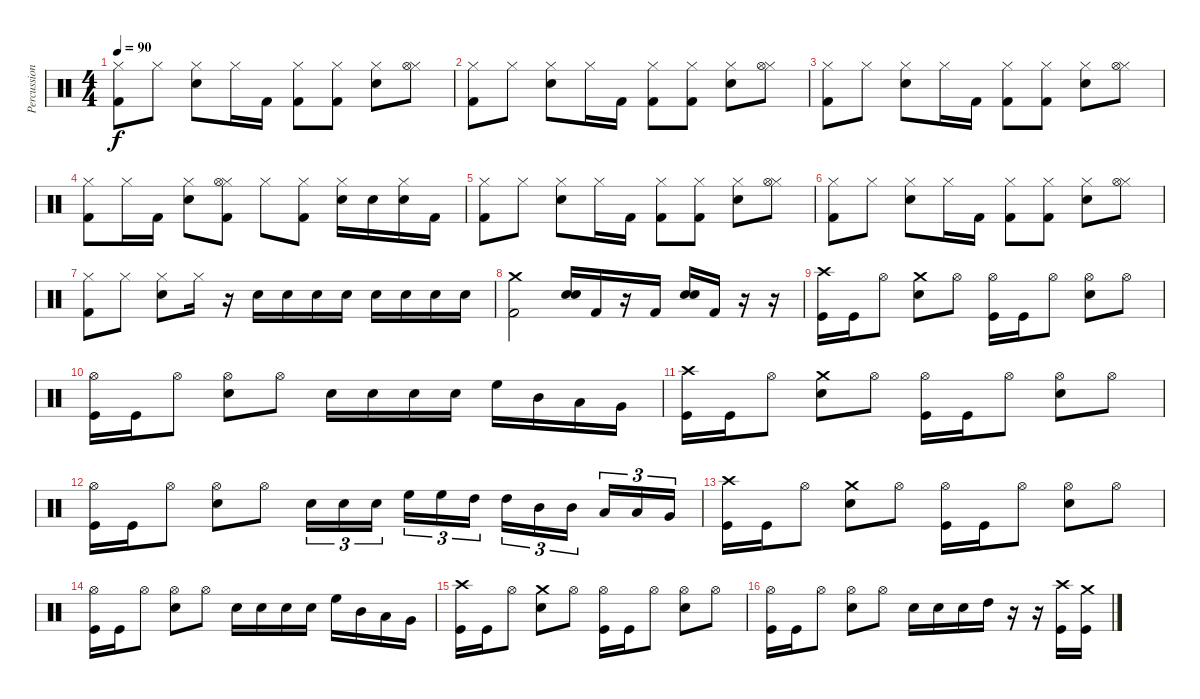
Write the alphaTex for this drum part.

\track ("Percussions" "Percussion") {instrument percussion}
\staff {score}
\articulation defaults
\ts (4 4)
\tempo 90
\clef neutral
\ks c
("Hi-Hat (closed)" "Kick (hit) 2").8{dy f} "Hi-Hat (closed)".8 ("Hi-Hat (closed)" "Electric Snare (hit)").8 "Hi-Hat (closed)".16 "Kick (hit) 2".16 ("Hi-Hat (closed)" "Kick (hit) 2").8 ("Hi-Hat (closed)" "Kick (hit) 2").8 ("Hi-Hat (closed)" "Electric Snare (hit)").8 ("Hi-Hat (closed)" "Hi-Hat (open)").8 |
("Hi-Hat (closed)" "Kick (hit) 2").8 "Hi-Hat (closed)".8 ("Hi-Hat (closed)" "Electric Snare (hit)").8 "Hi-Hat (closed)".16 "Kick (hit) 2".16 ("Hi-Hat (closed)" "Kick (hit) 2").8 ("Hi-Hat (closed)" "Kick (hit) 2").8 ("Hi-Hat (closed)" "Electric Snare (hit)").8 ("Hi-Hat (closed)" "Hi-Hat (open)").8 |
("Hi-Hat (closed)" "Kick (hit) 2").8 "Hi-Hat (closed)".8 ("Hi-Hat (closed)" "Electric Snare (hit)").8 "Hi-Hat (closed)".16 "Kick (hit) 2".16 ("Hi-Hat (closed)" "Kick (hit) 2").8 ("Hi-Hat (closed)" "Kick (hit) 2").8 ("Hi-Hat (closed)" "Electric Snare (hit)").8 ("Hi-Hat (closed)" "Hi-Hat (open)").8 |
("Hi-Hat (closed)" "Kick (hit) 2").8 "Hi-Hat (closed)".16 "Kick (hit) 2".16 ("Hi-Hat (closed)" "Electric Snare (hit)").8 ("Hi-Hat (closed)" "Hi-Hat (open)" "Kick (hit) 2").8 "Hi-Hat (closed)".8 ("Hi-Hat (closed)" "Kick (hit) 2").8 ("Hi-Hat (closed)" "Electric Snare (hit)").16 "Snare (hit)".16 ("Hi-Hat (closed)" "Snare (hit)").16 "Kick (hit) 2".16 |
("Hi-Hat (closed)" "Kick (hit) 2").8 "Hi-Hat (closed)".8 ("Hi-Hat (closed)" "Electric Snare (hit)").8 "Hi-Hat (closed)".16 "Kick (hit) 2".16 ("Hi-Hat (closed)" "Kick (hit) 2").8 ("Hi-Hat (closed)" "Kick (hit) 2").8 ("Hi-Hat (closed)" "Electric Snare (hit)").8 ("Hi-Hat (closed)" "Hi-Hat (open)").8 |
("Hi-Hat (closed)" "Kick (hit) 2").8 "Hi-Hat (closed)".8 ("Hi-Hat (closed)" "Electric Snare (hit)").8 "Hi-Hat (closed)".16 "Kick (hit) 2".16 ("Hi-Hat (closed)" "Kick (hit) 2").8 ("Hi-Hat (closed)" "Kick (hit) 2").8 ("Hi-Hat (closed)" "Electric Snare (hit)").8 ("Hi-Hat (closed)" "Hi-Hat (open)").8 |
("Hi-Hat (closed)" "Kick (hit) 2").8 "Hi-Hat (closed)".8 ("Hi-Hat (closed)" "Electric Snare (hit)").8 "Hi-Hat (closed)".16 r.16 "Electric Snare (hit)".16 "Electric Snare (hit)".16 "Electric Snare (hit)".16 "Electric Snare (hit)".16 "Electric Snare (hit)".16 "Electric Snare (hit)".16 "Electric Snare (hit)".16 "Electric Snare (hit)".16 |
("Crash medium (hit)" "Kick (hit) 2").2 ("Snare (hit) 2" "Electric Snare (hit)").16 "Kick (hit) 2".16 r.16 "Kick (hit) 2".16 ("Snare (hit) 2" "Electric Snare (hit)").16 "Kick (hit) 2".16 r.16 r.16 |
("Crash high (hit)" "Kick (hit)").16 "Kick (hit)".16 "Hi-Hat (open)".8 ("Crash medium (hit)" "Electric Snare (hit)").8 "Hi-Hat (open)".8 ("Hi-Hat (open)" "Kick (hit)").16 "Kick (hit)".16 "Hi-Hat (open)".8 ("Hi-Hat (open)" "Electric Snare (hit)").8 "Hi-Hat (open)".8 |
("Hi-Hat (open)" "Kick (hit)").16 "Kick (hit)".16 "Hi-Hat (open)".8 ("Hi-Hat (open)" "Electric Snare (hit)").8 "Hi-Hat (open)".8 "Electric Snare (hit)".16 "Electric Snare (hit)".16 "Electric Snare (hit)".16 "Electric Snare (hit)".16 "High Floor Tom (hit)".16 "Mid Tom (hit)".16 "Low Tom (hit)".16 "Very Low Tom (hit)".16 |
("Crash high (hit)" "Kick (hit)").16 "Kick (hit)".16 "Hi-Hat (open)".8 ("Crash medium (hit)" "Electric Snare (hit)").8 "Hi-Hat (open)".8 ("Hi-Hat (open)" "Kick (hit)").16 "Kick (hit)".16 "Hi-Hat (open)".8 ("Hi-Hat (open)" "Electric Snare (hit)").8 "Hi-Hat (open)".8 |
("Hi-Hat (open)" "Kick (hit)").16 "Kick (hit)".16 "Hi-Hat (open)".8 ("Hi-Hat (open)" "Electric Snare (hit)").8 "Hi-Hat (open)".8 "Electric Snare (hit)".16{tu (3 2)} "Electric Snare (hit)".16{tu (3 2)} "Electric Snare (hit)".16{tu (3 2)} "High Floor Tom (hit)".16{tu (3 2)} "High Floor Tom (hit)".16{tu (3 2)} "High Tom (hit)".16{tu (3 2)} "High Tom (hit)".16{tu (3 2)} "Mid Tom (hit)".16{tu (3 2)} "Mid Tom (hit)".16{tu (3 2)} "Low Tom (hit)".16{tu (3 2)} "Low Floor Tom (hit)".16{tu (3 2)} "Very Low Tom (hit)".16{tu (3 2)} |
("Crash high (hit)" "Kick (hit)").16 "Kick (hit)".16 "Hi-Hat (open)".8 ("Crash medium (hit)" "Electric Snare (hit)").8 "Hi-Hat (open)".8 ("Hi-Hat (open)" "Kick (hit)").16 "Kick (hit)".16 "Hi-Hat (open)".8 ("Hi-Hat (open)" "Electric Snare (hit)").8 "Hi-Hat (open)".8 |
("Hi-Hat (open)" "Kick (hit)").16 "Kick (hit)".16 "Hi-Hat (open)".8 ("Hi-Hat (open)" "Electric Snare (hit)").8 "Hi-Hat (open)".8 "Electric Snare (hit)".16 "Electric Snare (hit)".16 "Electric Snare (hit)".16 "Electric Snare (hit)".16 "High Floor Tom (hit)".16 "Mid Tom (hit)".16 "Low Tom (hit)".16 "Very Low Tom (hit)".16 |
("Crash high (hit)" "Kick (hit)").16 "Kick (hit)".16 "Hi-Hat (open)".8 ("Crash medium (hit)" "Electric Snare (hit)").8 "Hi-Hat (open)".8 ("Hi-Hat (open)" "Kick (hit)").16 "Kick (hit)".16 "Hi-Hat (open)".8 ("Hi-Hat (open)" "Electric Snare (hit)").8 "Hi-Hat (open)".8 |
("Hi-Hat (open)" "Kick (hit)").16 "Kick (hit)".16 "Hi-Hat (open)".8 ("Hi-Hat (open)" "Electric Snare (hit)").8 "Hi-Hat (open)".8 "Electric Snare (hit)".16 "Electric Snare (hit)".16 "Electric Snare (hit)".16 "High Tom (hit)".16 r.16 r.16 ("Crash high (hit)" "Kick (hit)").16 ("Crash medium (hit)" "Kick (hit)").16
